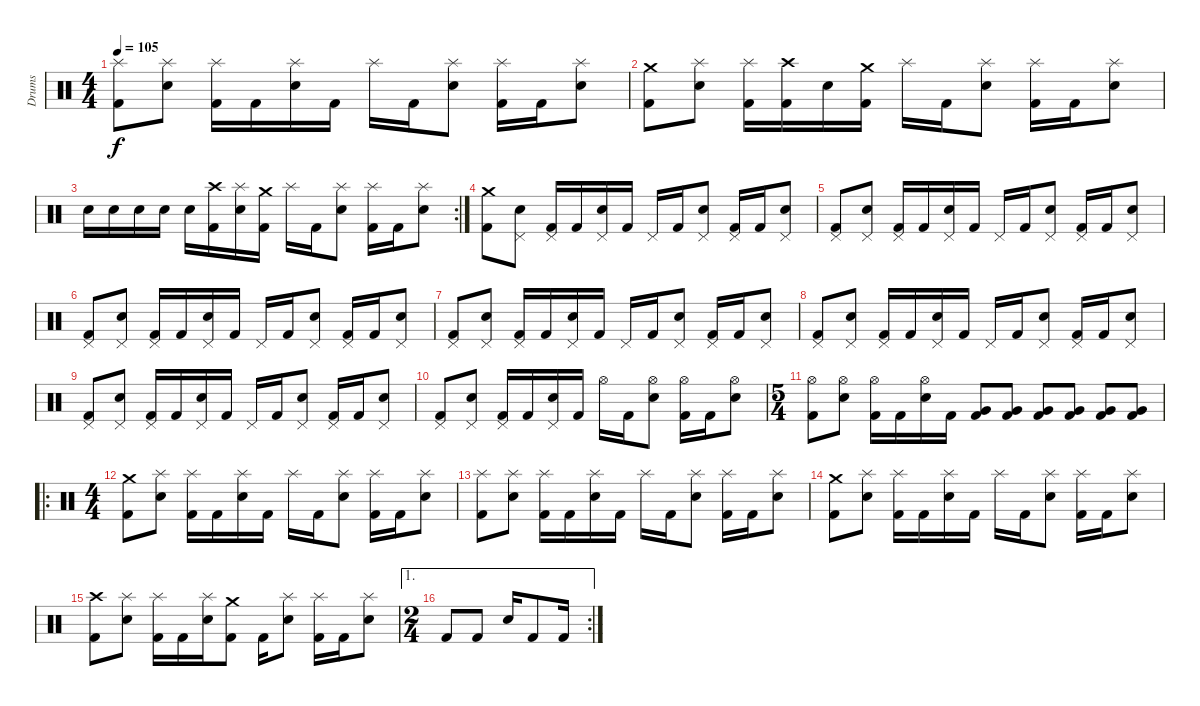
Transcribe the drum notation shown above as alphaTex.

\track ("Drums" "Drums") {instrument percussion}
\staff {score}
\articulation defaults
\ts (4 4)
\tempo 105
\clef neutral
\ks c
("Splash (hit)" "Kick (hit) 2").8{dy f} ("Splash (hit)" "Electric Snare (hit)").8 ("Splash (hit)" "Kick (hit) 2").16 "Kick (hit) 2".16 ("Splash (hit)" "Electric Snare (hit)").16 "Kick (hit) 2".16 "Splash (hit)".16 "Kick (hit) 2".16 ("Splash (hit)" "Electric Snare (hit)").8 ("Splash (hit)" "Kick (hit) 2").16 "Kick (hit) 2".16 ("Splash (hit)" "Electric Snare (hit)").8 |
("Crash medium (hit)" "Kick (hit) 2").8 ("Splash (hit)" "Electric Snare (hit)").8 ("Splash (hit)" "Kick (hit) 2").16 ("Crash high (hit)" "Kick (hit) 2").16 "Electric Snare (hit)".16 ("Crash medium (hit)" "Kick (hit) 2").16 "Splash (hit)".16 "Kick (hit) 2".16 ("Splash (hit)" "Electric Snare (hit)").8 ("Splash (hit)" "Kick (hit) 2").16 "Kick (hit) 2".16 ("Splash (hit)" "Electric Snare (hit)").8 |
\rc 2 "Electric Snare (hit)".16 "Electric Snare (hit)".16 "Electric Snare (hit)".16 "Electric Snare (hit)".16 "Electric Snare (hit)".16
("Crash high (hit)" "Kick (hit) 2").16 ("Splash (hit)" "Electric Snare (hit)").16 ("Crash medium (hit)" "Kick (hit) 2").16 "Splash (hit)".16 "Kick (hit) 2".16 ("Splash (hit)" "Electric Snare (hit)").8 ("Splash (hit)" "Kick (hit) 2").16 "Kick (hit) 2".16 ("Splash (hit)" "Electric Snare (hit)").8 |
("Crash medium (hit)" "Kick (hit) 2").8 ("Pedal Hi-Hat (hit)" "Electric Snare (hit)").8 ("Pedal Hi-Hat (hit)" "Kick (hit) 2").16 "Kick (hit) 2".16 ("Pedal Hi-Hat (hit)" "Electric Snare (hit)").16 "Kick (hit) 2".16 "Pedal Hi-Hat (hit)".16 "Kick (hit) 2".16 ("Pedal Hi-Hat (hit)" "Electric Snare (hit)").8 ("Pedal Hi-Hat (hit)" "Kick (hit) 2").16 "Kick (hit) 2".16 ("Pedal Hi-Hat (hit)" "Electric Snare (hit)").8 |
("Pedal Hi-Hat (hit)" "Kick (hit) 2").8 ("Pedal Hi-Hat (hit)" "Electric Snare (hit)").8 ("Pedal Hi-Hat (hit)" "Kick (hit) 2").16 "Kick (hit) 2".16 ("Pedal Hi-Hat (hit)" "Electric Snare (hit)").16 "Kick (hit) 2".16 "Pedal Hi-Hat (hit)".16 "Kick (hit) 2".16 ("Pedal Hi-Hat (hit)" "Electric Snare (hit)").8 ("Pedal Hi-Hat (hit)" "Kick (hit) 2").16 "Kick (hit) 2".16 ("Pedal Hi-Hat (hit)" "Electric Snare (hit)").8 |
("Pedal Hi-Hat (hit)" "Kick (hit) 2").8 ("Pedal Hi-Hat (hit)" "Electric Snare (hit)").8 ("Pedal Hi-Hat (hit)" "Kick (hit) 2").16 "Kick (hit) 2".16 ("Pedal Hi-Hat (hit)" "Electric Snare (hit)").16 "Kick (hit) 2".16 "Pedal Hi-Hat (hit)".16 "Kick (hit) 2".16 ("Pedal Hi-Hat (hit)" "Electric Snare (hit)").8 ("Pedal Hi-Hat (hit)" "Kick (hit) 2").16 "Kick (hit) 2".16 ("Pedal Hi-Hat (hit)" "Electric Snare (hit)").8 |
("Pedal Hi-Hat (hit)" "Kick (hit) 2").8 ("Pedal Hi-Hat (hit)" "Electric Snare (hit)").8 ("Pedal Hi-Hat (hit)" "Kick (hit) 2").16 "Kick (hit) 2".16 ("Pedal Hi-Hat (hit)" "Electric Snare (hit)").16 "Kick (hit) 2".16 "Pedal Hi-Hat (hit)".16 "Kick (hit) 2".16 ("Pedal Hi-Hat (hit)" "Electric Snare (hit)").8 ("Pedal Hi-Hat (hit)" "Kick (hit) 2").16 "Kick (hit) 2".16 ("Pedal Hi-Hat (hit)" "Electric Snare (hit)").8 |
("Pedal Hi-Hat (hit)" "Kick (hit) 2").8 ("Pedal Hi-Hat (hit)" "Electric Snare (hit)").8 ("Pedal Hi-Hat (hit)" "Kick (hit) 2").16 "Kick (hit) 2".16 ("Pedal Hi-Hat (hit)" "Electric Snare (hit)").16 "Kick (hit) 2".16 "Pedal Hi-Hat (hit)".16 "Kick (hit) 2".16 ("Pedal Hi-Hat (hit)" "Electric Snare (hit)").8 ("Pedal Hi-Hat (hit)" "Kick (hit) 2").16 "Kick (hit) 2".16 ("Pedal Hi-Hat (hit)" "Electric Snare (hit)").8 |
("Pedal Hi-Hat (hit)" "Kick (hit) 2").8 ("Pedal Hi-Hat (hit)" "Electric Snare (hit)").8 ("Pedal Hi-Hat (hit)" "Kick (hit) 2").16 "Kick (hit) 2".16 ("Pedal Hi-Hat (hit)" "Electric Snare (hit)").16 "Kick (hit) 2".16 "Pedal Hi-Hat (hit)".16 "Kick (hit) 2".16 ("Pedal Hi-Hat (hit)" "Electric Snare (hit)").8 ("Pedal Hi-Hat (hit)" "Kick (hit) 2").16 "Kick (hit) 2".16 ("Pedal Hi-Hat (hit)" "Electric Snare (hit)").8 |
("Pedal Hi-Hat (hit)" "Kick (hit) 2").8 ("Pedal Hi-Hat (hit)" "Electric Snare (hit)").8 ("Pedal Hi-Hat (hit)" "Kick (hit) 2").16 "Kick (hit) 2".16 ("Pedal Hi-Hat (hit)" "Electric Snare (hit)").16 "Kick (hit) 2".16 "Hi-Hat (open)".16 "Kick (hit) 2".16 ("Hi-Hat (open)" "Electric Snare (hit)").8 ("Hi-Hat (open)" "Kick (hit) 2").16 "Kick (hit) 2".16 ("Hi-Hat (open)" "Electric Snare (hit)").8 |
\ts (5 4)
("Hi-Hat (open)" "Kick (hit) 2").8 ("Hi-Hat (open)" "Electric Snare (hit)").8 ("Hi-Hat (open)" "Kick (hit) 2").16 "Kick (hit) 2".16 ("Hi-Hat (open)" "Electric Snare (hit)").16 "Kick (hit) 2".16 ("Very Low Tom (hit)" "Kick (hit) 2").8 ("Very Low Tom (hit)" "Kick (hit) 2").8 ("Very Low Tom (hit)" "Kick (hit) 2").8 ("Very Low Tom (hit)" "Kick (hit) 2").8 ("Very Low Tom (hit)" "Kick (hit) 2").8 ("Very Low Tom (hit)" "Kick (hit) 2").8 |
\ro
\ts (4 4)
("Crash medium (hit)" "Kick (hit) 2").8 ("Splash (hit)" "Electric Snare (hit)").8 ("Splash (hit)" "Kick (hit) 2").16 "Kick (hit) 2".16 ("Splash (hit)" "Electric Snare (hit)").16 "Kick (hit) 2".16 "Splash (hit)".16 "Kick (hit) 2".16 ("Splash (hit)" "Electric Snare (hit)").8 ("Splash (hit)" "Kick (hit) 2").16 "Kick (hit) 2".16 ("Splash (hit)" "Electric Snare (hit)").8 |
("Splash (hit)" "Kick (hit) 2").8 ("Splash (hit)" "Electric Snare (hit)").8 ("Splash (hit)" "Kick (hit) 2").16 "Kick (hit) 2".16 ("Splash (hit)" "Electric Snare (hit)").16 "Kick (hit) 2".16 "Splash (hit)".16 "Kick (hit) 2".16 ("Splash (hit)" "Electric Snare (hit)").8 ("Splash (hit)" "Kick (hit) 2").16 "Kick (hit) 2".16 ("Splash (hit)" "Electric Snare (hit)").8 |
("Crash medium (hit)" "Kick (hit) 2").8 ("Splash (hit)" "Electric Snare (hit)").8 ("Splash (hit)" "Kick (hit) 2").16 "Kick (hit) 2".16 ("Splash (hit)" "Electric Snare (hit)").16 "Kick (hit) 2".16 "Splash (hit)".16 "Kick (hit) 2".16 ("Splash (hit)" "Electric Snare (hit)").8 ("Splash (hit)" "Kick (hit) 2").16 "Kick (hit) 2".16 ("Splash (hit)" "Electric Snare (hit)").8 |
("Crash high (hit)" "Kick (hit) 2").8 ("Splash (hit)" "Electric Snare (hit)").8 ("Splash (hit)" "Kick (hit) 2").16 "Kick (hit) 2".16 ("Splash (hit)" "Electric Snare (hit)").16 ("Crash medium (hit)" "Kick (hit) 2").8 "Kick (hit) 2".16 ("Splash (hit)" "Electric Snare (hit)").8 ("Splash (hit)" "Kick (hit) 2").16 "Kick (hit) 2".16 ("Splash (hit)" "Electric Snare (hit)").8 |
\ae 1
\rc 2
\ts (2 4)
"Kick (hit) 2".8 "Kick (hit) 2".8 "Electric Snare (hit)".16 "Kick (hit) 2".8 "Kick (hit) 2".16
